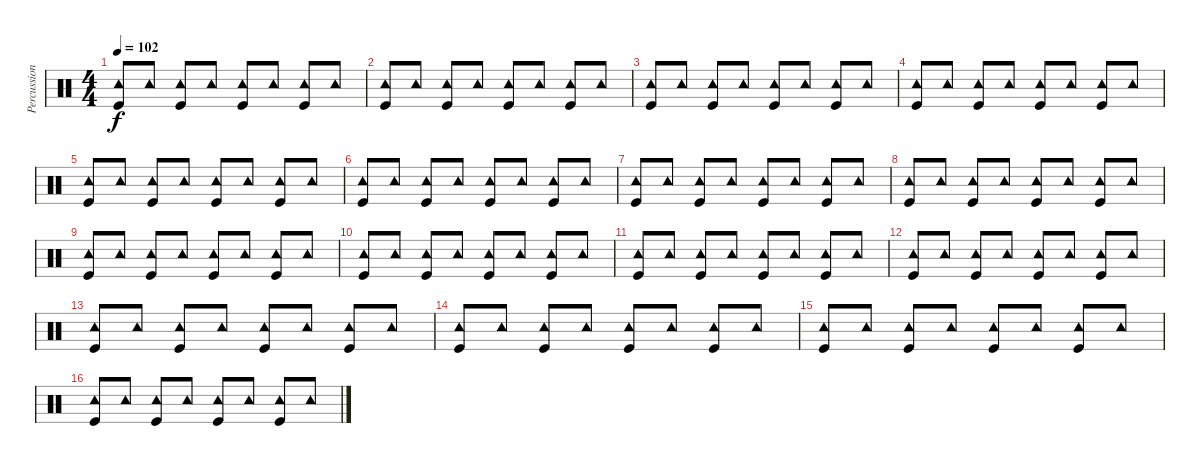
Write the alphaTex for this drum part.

\track ("Percussion" "Percussion") {instrument percussion}
\staff {score}
\articulation defaults
\ts (4 4)
\tempo 102
\clef neutral
\ks c
("Tambourine (hit)" "Kick (hit)").8{dy f} "Tambourine (hit)".8 ("Tambourine (hit)" "Kick (hit)").8 "Tambourine (hit)".8 ("Tambourine (hit)" "Kick (hit)").8 "Tambourine (hit)".8 ("Tambourine (hit)" "Kick (hit)").8 "Tambourine (hit)".8 |
("Tambourine (hit)" "Kick (hit)").8 "Tambourine (hit)".8 ("Tambourine (hit)" "Kick (hit)").8 "Tambourine (hit)".8 ("Tambourine (hit)" "Kick (hit)").8 "Tambourine (hit)".8 ("Tambourine (hit)" "Kick (hit)").8 "Tambourine (hit)".8 |
("Tambourine (hit)" "Kick (hit)").8 "Tambourine (hit)".8 ("Tambourine (hit)" "Kick (hit)").8 "Tambourine (hit)".8 ("Tambourine (hit)" "Kick (hit)").8 "Tambourine (hit)".8 ("Tambourine (hit)" "Kick (hit)").8 "Tambourine (hit)".8 |
("Tambourine (hit)" "Kick (hit)").8 "Tambourine (hit)".8 ("Tambourine (hit)" "Kick (hit)").8 "Tambourine (hit)".8 ("Tambourine (hit)" "Kick (hit)").8 "Tambourine (hit)".8 ("Tambourine (hit)" "Kick (hit)").8 "Tambourine (hit)".8 |
("Tambourine (hit)" "Kick (hit)").8 "Tambourine (hit)".8 ("Tambourine (hit)" "Kick (hit)").8 "Tambourine (hit)".8 ("Tambourine (hit)" "Kick (hit)").8 "Tambourine (hit)".8 ("Tambourine (hit)" "Kick (hit)").8 "Tambourine (hit)".8 |
("Tambourine (hit)" "Kick (hit)").8 "Tambourine (hit)".8 ("Tambourine (hit)" "Kick (hit)").8 "Tambourine (hit)".8 ("Tambourine (hit)" "Kick (hit)").8 "Tambourine (hit)".8 ("Tambourine (hit)" "Kick (hit)").8 "Tambourine (hit)".8 |
("Tambourine (hit)" "Kick (hit)").8 "Tambourine (hit)".8 ("Tambourine (hit)" "Kick (hit)").8 "Tambourine (hit)".8 ("Tambourine (hit)" "Kick (hit)").8 "Tambourine (hit)".8 ("Tambourine (hit)" "Kick (hit)").8 "Tambourine (hit)".8 |
("Tambourine (hit)" "Kick (hit)").8 "Tambourine (hit)".8 ("Tambourine (hit)" "Kick (hit)").8 "Tambourine (hit)".8 ("Tambourine (hit)" "Kick (hit)").8 "Tambourine (hit)".8 ("Tambourine (hit)" "Kick (hit)").8 "Tambourine (hit)".8 |
("Tambourine (hit)" "Kick (hit)").8 "Tambourine (hit)".8 ("Tambourine (hit)" "Kick (hit)").8 "Tambourine (hit)".8 ("Tambourine (hit)" "Kick (hit)").8 "Tambourine (hit)".8 ("Tambourine (hit)" "Kick (hit)").8 "Tambourine (hit)".8 |
("Tambourine (hit)" "Kick (hit)").8 "Tambourine (hit)".8 ("Tambourine (hit)" "Kick (hit)").8 "Tambourine (hit)".8 ("Tambourine (hit)" "Kick (hit)").8 "Tambourine (hit)".8 ("Tambourine (hit)" "Kick (hit)").8 "Tambourine (hit)".8 |
("Tambourine (hit)" "Kick (hit)").8 "Tambourine (hit)".8 ("Tambourine (hit)" "Kick (hit)").8 "Tambourine (hit)".8 ("Tambourine (hit)" "Kick (hit)").8 "Tambourine (hit)".8 ("Tambourine (hit)" "Kick (hit)").8 "Tambourine (hit)".8 |
("Tambourine (hit)" "Kick (hit)").8 "Tambourine (hit)".8 ("Tambourine (hit)" "Kick (hit)").8 "Tambourine (hit)".8 ("Tambourine (hit)" "Kick (hit)").8 "Tambourine (hit)".8 ("Tambourine (hit)" "Kick (hit)").8 "Tambourine (hit)".8 |
("Tambourine (hit)" "Kick (hit)").8 "Tambourine (hit)".8 ("Tambourine (hit)" "Kick (hit)").8 "Tambourine (hit)".8 ("Tambourine (hit)" "Kick (hit)").8 "Tambourine (hit)".8 ("Tambourine (hit)" "Kick (hit)").8 "Tambourine (hit)".8 |
("Tambourine (hit)" "Kick (hit)").8 "Tambourine (hit)".8 ("Tambourine (hit)" "Kick (hit)").8 "Tambourine (hit)".8 ("Tambourine (hit)" "Kick (hit)").8 "Tambourine (hit)".8 ("Tambourine (hit)" "Kick (hit)").8 "Tambourine (hit)".8 |
("Tambourine (hit)" "Kick (hit)").8 "Tambourine (hit)".8 ("Tambourine (hit)" "Kick (hit)").8 "Tambourine (hit)".8 ("Tambourine (hit)" "Kick (hit)").8 "Tambourine (hit)".8 ("Tambourine (hit)" "Kick (hit)").8 "Tambourine (hit)".8 |
("Tambourine (hit)" "Kick (hit)").8 "Tambourine (hit)".8 ("Tambourine (hit)" "Kick (hit)").8 "Tambourine (hit)".8 ("Tambourine (hit)" "Kick (hit)").8 "Tambourine (hit)".8 ("Tambourine (hit)" "Kick (hit)").8 "Tambourine (hit)".8
